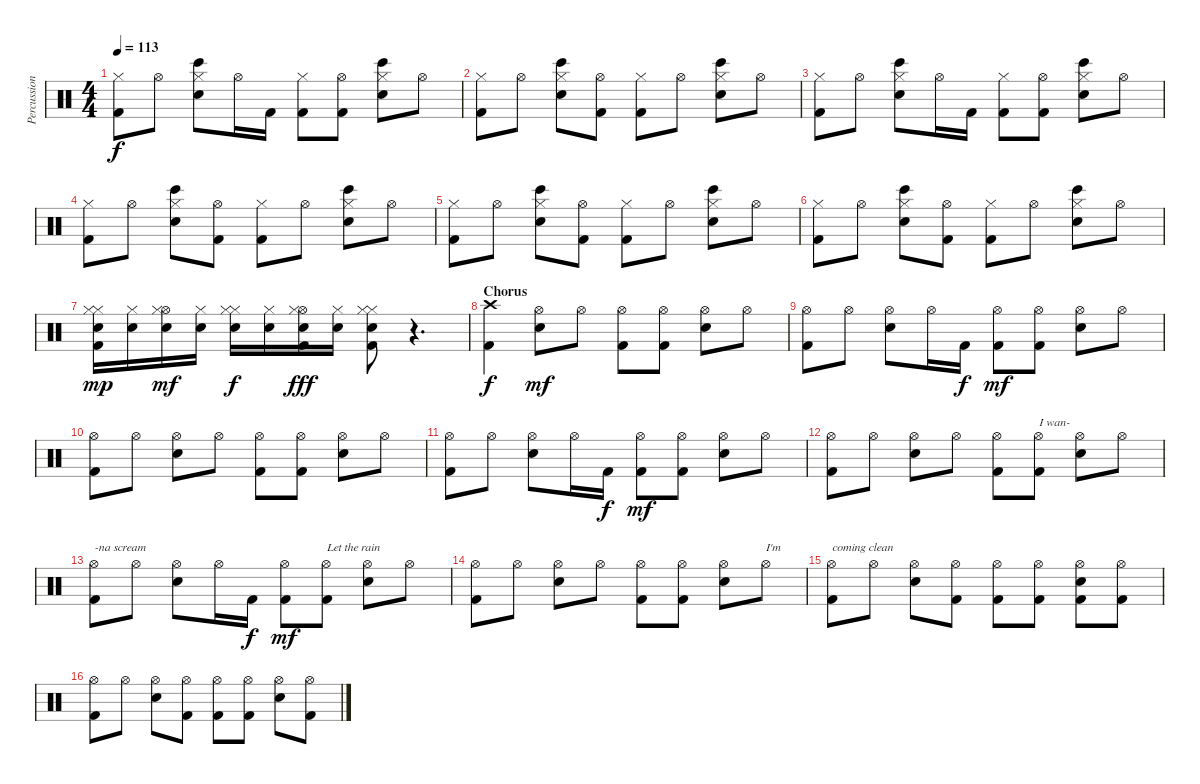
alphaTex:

\track ("Percussion" "Percussion") {instrument percussion}
\staff {score}
\articulation defaults
\ts (4 4)
\tempo 113
\clef neutral
\ks c
("Hi-Hat (closed)" "Kick (hit) 2").8{dy f} "Hi-Hat (open)".8 ("Hi-Hat (closed)" "Electric Snare (hit)" "Bongo High (hit)").8 "Hi-Hat (open)".16 "Kick (hit) 2".16 ("Hi-Hat (closed)" "Kick (hit) 2").8 ("Hi-Hat (open)" "Kick (hit) 2").8 ("Hi-Hat (closed)" "Electric Snare (hit)" "Bongo High (hit)").8 "Hi-Hat (open)".8 |
("Hi-Hat (closed)" "Kick (hit) 2").8 "Hi-Hat (open)".8 ("Hi-Hat (closed)" "Electric Snare (hit)" "Bongo High (hit)").8 ("Hi-Hat (open)" "Kick (hit) 2").8 ("Hi-Hat (closed)" "Kick (hit) 2").8 "Hi-Hat (open)".8 ("Hi-Hat (closed)" "Electric Snare (hit)" "Bongo High (hit)").8 "Hi-Hat (open)".8 |
("Hi-Hat (closed)" "Kick (hit) 2").8 "Hi-Hat (open)".8 ("Hi-Hat (closed)" "Electric Snare (hit)" "Bongo High (hit)").8 "Hi-Hat (open)".16 "Kick (hit) 2".16 ("Hi-Hat (closed)" "Kick (hit) 2").8 ("Hi-Hat (open)" "Kick (hit) 2").8 ("Hi-Hat (closed)" "Electric Snare (hit)" "Bongo High (hit)").8 "Hi-Hat (open)".8 |
("Hi-Hat (closed)" "Kick (hit) 2").8 "Hi-Hat (open)".8 ("Hi-Hat (closed)" "Electric Snare (hit)" "Bongo High (hit)").8 ("Hi-Hat (open)" "Kick (hit) 2").8 ("Hi-Hat (closed)" "Kick (hit) 2").8 "Hi-Hat (open)".8 ("Hi-Hat (closed)" "Electric Snare (hit)" "Bongo High (hit)").8 "Hi-Hat (open)".8 |
("Hi-Hat (closed)" "Kick (hit) 2").8 "Hi-Hat (open)".8 ("Hi-Hat (closed)" "Electric Snare (hit)" "Bongo High (hit)").8 ("Hi-Hat (open)" "Kick (hit) 2").8 ("Hi-Hat (closed)" "Kick (hit) 2").8 "Hi-Hat (open)".8 ("Hi-Hat (closed)" "Electric Snare (hit)" "Bongo High (hit)").8 "Hi-Hat (open)".8 |
("Hi-Hat (closed)" "Kick (hit) 2").8 "Hi-Hat (open)".8 ("Hi-Hat (closed)" "Electric Snare (hit)" "Bongo High (hit)").8 ("Hi-Hat (open)" "Kick (hit) 2").8 ("Hi-Hat (closed)" "Kick (hit) 2").8 "Hi-Hat (open)".8 ("Hi-Hat (closed)" "Electric Snare (hit)" "Bongo High (hit)").8 "Hi-Hat (open)".8 |
("Hi-Hat (closed)" "Hi-Hat (closed)" "Electric Snare (hit)" "Kick (hit) 2").16{dy mp} ("Hi-Hat (closed)" "Electric Snare (hit)").16 ("Hi-Hat (open)" "Hi-Hat (closed)" "Electric Snare (hit)").16{dy mf} ("Hi-Hat (closed)" "Electric Snare (hit)").16 ("Hi-Hat (closed)" "Hi-Hat (closed)" "Electric Snare (hit)").16{dy f} ("Hi-Hat (closed)" "Electric Snare (hit)").16 ("Hi-Hat (open)" "Hi-Hat (closed)" "Electric Snare (hit)" "Kick (hit) 2").16{dy fff} ("Hi-Hat (closed)" "Electric Snare (hit)").16 ("Hi-Hat (closed)" "Hi-Hat (closed)" "Electric Snare (hit)" "Kick (hit) 2").8 r.4{d} |
\section ("" "Chorus")
("Crash high (hit)" "Kick (hit) 2").4{dy f} ("Hi-Hat (open)" "Electric Snare (hit)").8{dy mf} "Hi-Hat (open)".8 ("Hi-Hat (open)" "Kick (hit) 2").8 ("Hi-Hat (open)" "Kick (hit) 2").8 ("Hi-Hat (open)" "Electric Snare (hit)").8 "Hi-Hat (open)".8 |
("Hi-Hat (open)" "Kick (hit) 2").8 "Hi-Hat (open)".8 ("Hi-Hat (open)" "Electric Snare (hit)").8 "Hi-Hat (open)".16 "Kick (hit) 2".16{dy f} ("Hi-Hat (open)" "Kick (hit) 2").8{dy mf} ("Hi-Hat (open)" "Kick (hit) 2").8 ("Hi-Hat (open)" "Electric Snare (hit)").8 "Hi-Hat (open)".8 |
("Hi-Hat (open)" "Kick (hit) 2").8 "Hi-Hat (open)".8 ("Hi-Hat (open)" "Electric Snare (hit)").8 "Hi-Hat (open)".8 ("Hi-Hat (open)" "Kick (hit) 2").8 ("Hi-Hat (open)" "Kick (hit) 2").8 ("Hi-Hat (open)" "Electric Snare (hit)").8 "Hi-Hat (open)".8 |
("Hi-Hat (open)" "Kick (hit) 2").8 "Hi-Hat (open)".8 ("Hi-Hat (open)" "Electric Snare (hit)").8 "Hi-Hat (open)".16 "Kick (hit) 2".16{dy f} ("Hi-Hat (open)" "Kick (hit) 2").8{dy mf} ("Hi-Hat (open)" "Kick (hit) 2").8 ("Hi-Hat (open)" "Electric Snare (hit)").8 "Hi-Hat (open)".8 |
("Hi-Hat (open)" "Kick (hit) 2").8 "Hi-Hat (open)".8 ("Hi-Hat (open)" "Electric Snare (hit)").8 "Hi-Hat (open)".8 ("Hi-Hat (open)" "Kick (hit) 2").8 ("Hi-Hat (open)" "Kick (hit) 2").8{txt "I wan-"} ("Hi-Hat (open)" "Electric Snare (hit)").8 "Hi-Hat (open)".8 |
("Hi-Hat (open)" "Kick (hit) 2").8{txt "-na scream"} "Hi-Hat (open)".8 ("Hi-Hat (open)" "Electric Snare (hit)").8 "Hi-Hat (open)".16 "Kick (hit) 2".16{dy f} ("Hi-Hat (open)" "Kick (hit) 2").8{dy mf} ("Hi-Hat (open)" "Kick (hit) 2").8{txt "Let the rain"} ("Hi-Hat (open)" "Electric Snare (hit)").8 "Hi-Hat (open)".8 |
("Hi-Hat (open)" "Kick (hit) 2").8 "Hi-Hat (open)".8 ("Hi-Hat (open)" "Electric Snare (hit)").8 "Hi-Hat (open)".8 ("Hi-Hat (open)" "Kick (hit) 2").8 ("Hi-Hat (open)" "Kick (hit) 2").8 ("Hi-Hat (open)" "Electric Snare (hit)").8 "Hi-Hat (open)".8{txt "I'm"} |
("Hi-Hat (open)" "Kick (hit) 2").8{txt "coming clean"} "Hi-Hat (open)".8 ("Hi-Hat (open)" "Electric Snare (hit)").8 ("Hi-Hat (open)" "Kick (hit) 2").8 ("Hi-Hat (open)" "Kick (hit) 2").8 ("Hi-Hat (open)" "Kick (hit) 2").8 ("Hi-Hat (open)" "Electric Snare (hit)" "Kick (hit) 2").8 ("Hi-Hat (open)" "Kick (hit) 2").8 |
("Hi-Hat (open)" "Kick (hit) 2").8 "Hi-Hat (open)".8 ("Hi-Hat (open)" "Electric Snare (hit)").8 ("Hi-Hat (open)" "Kick (hit) 2").8 ("Hi-Hat (open)" "Kick (hit) 2").8 ("Hi-Hat (open)" "Kick (hit) 2").8 ("Hi-Hat (open)" "Electric Snare (hit)").8 ("Hi-Hat (open)" "Kick (hit) 2").8
